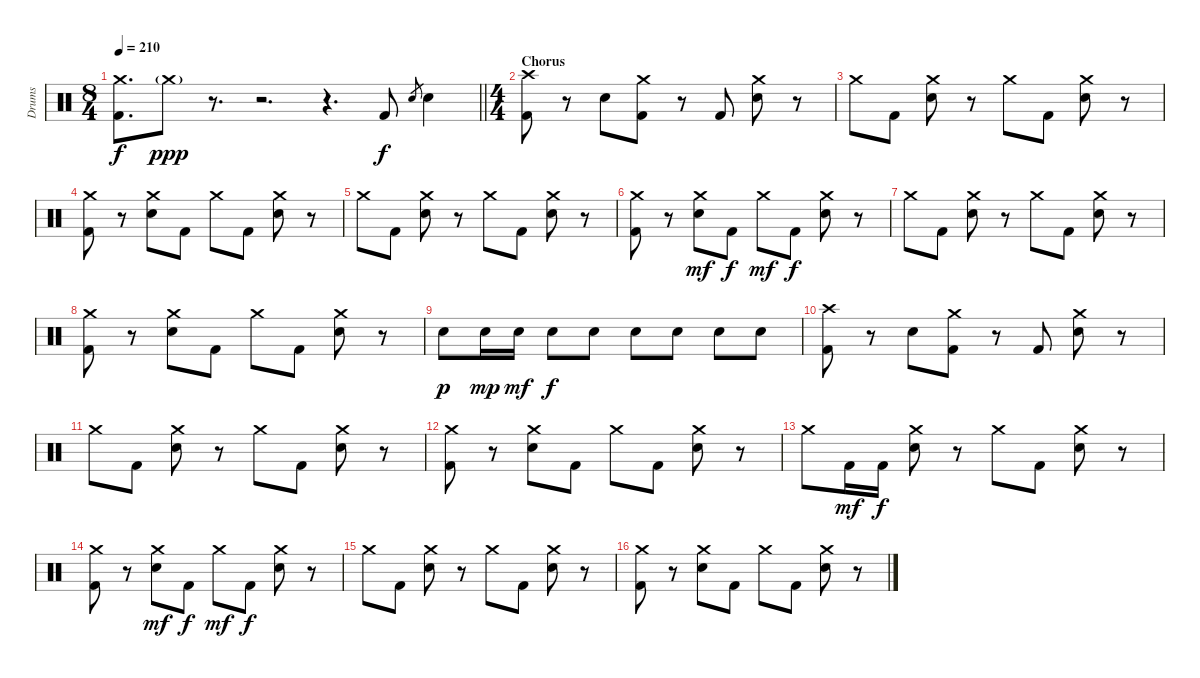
\track ("Drums" "Drums") {instrument percussion}
\staff {score}
\articulation defaults
\ts (8 4)
\tempo 210
\clef neutral
\barLineRight lightlight
\ks c
("Crash medium (hit)" "Kick (hit) 2").8{d dy f} "Crash medium (hit)"{g}.8{dy ppp} r.8{d} r.2{d} r.4{d} "Kick (hit) 2".8{dy f} "Electric Snare (hit)".8{gr} "Electric Snare (hit)".4 |
\ts (4 4)
\section ("" "Chorus")
("Crash high (hit)" "Kick (hit) 2").8 r.8 "Electric Snare (hit)".8 ("Crash medium (hit)" "Kick (hit) 2").8 r.8 "Kick (hit) 2".8 ("Crash medium (hit)" "Electric Snare (hit)").8 r.8 |
"Crash medium (hit)".8 "Kick (hit) 2".8 ("Crash medium (hit)" "Electric Snare (hit)").8 r.8 "Crash medium (hit)".8 "Kick (hit) 2".8 ("Crash medium (hit)" "Electric Snare (hit)").8 r.8 |
("Crash medium (hit)" "Kick (hit) 2").8 r.8 ("Crash medium (hit)" "Electric Snare (hit)").8 "Kick (hit) 2".8 "Crash medium (hit)".8 "Kick (hit) 2".8 ("Crash medium (hit)" "Electric Snare (hit)").8 r.8 |
"Crash medium (hit)".8 "Kick (hit) 2".8 ("Crash medium (hit)" "Electric Snare (hit)").8 r.8 "Crash medium (hit)".8 "Kick (hit) 2".8 ("Crash medium (hit)" "Electric Snare (hit)").8 r.8 |
("Crash medium (hit)" "Kick (hit) 2").8 r.8 ("Crash medium (hit)" "Electric Snare (hit)").8{dy mf} "Kick (hit) 2".8{dy f} "Crash medium (hit)".8{dy mf} "Kick (hit) 2".8{dy f} ("Crash medium (hit)" "Electric Snare (hit)").8 r.8 |
"Crash medium (hit)".8 "Kick (hit) 2".8 ("Crash medium (hit)" "Electric Snare (hit)").8 r.8 "Crash medium (hit)".8 "Kick (hit) 2".8 ("Crash medium (hit)" "Electric Snare (hit)").8 r.8 |
("Crash medium (hit)" "Kick (hit) 2").8 r.8 ("Crash medium (hit)" "Electric Snare (hit)").8 "Kick (hit) 2".8 "Crash medium (hit)".8 "Kick (hit) 2".8 ("Crash medium (hit)" "Electric Snare (hit)").8 r.8 |
"Electric Snare (hit)".8{dy p} "Electric Snare (hit)".16{dy mp} "Electric Snare (hit)".16{dy mf} "Electric Snare (hit)".8{dy f} "Electric Snare (hit)".8 "Electric Snare (hit)".8 "Electric Snare (hit)".8 "Electric Snare (hit)".8 "Electric Snare (hit)".8 |
("Crash high (hit)" "Kick (hit) 2").8 r.8 "Electric Snare (hit)".8 ("Crash medium (hit)" "Kick (hit) 2").8 r.8 "Kick (hit) 2".8 ("Crash medium (hit)" "Electric Snare (hit)").8 r.8 |
"Crash medium (hit)".8 "Kick (hit) 2".8 ("Crash medium (hit)" "Electric Snare (hit)").8 r.8 "Crash medium (hit)".8 "Kick (hit) 2".8 ("Crash medium (hit)" "Electric Snare (hit)").8 r.8 |
("Crash medium (hit)" "Kick (hit) 2").8 r.8 ("Crash medium (hit)" "Electric Snare (hit)").8 "Kick (hit) 2".8 "Crash medium (hit)".8 "Kick (hit) 2".8 ("Crash medium (hit)" "Electric Snare (hit)").8 r.8 |
"Crash medium (hit)".8 "Kick (hit) 2".16{dy mf} "Kick (hit) 2".16{dy f} ("Crash medium (hit)" "Electric Snare (hit)").8 r.8 "Crash medium (hit)".8 "Kick (hit) 2".8 ("Crash medium (hit)" "Electric Snare (hit)").8 r.8 |
("Crash medium (hit)" "Kick (hit) 2").8 r.8 ("Crash medium (hit)" "Electric Snare (hit)").8{dy mf} "Kick (hit) 2".8{dy f} "Crash medium (hit)".8{dy mf} "Kick (hit) 2".8{dy f} ("Crash medium (hit)" "Electric Snare (hit)").8 r.8 |
"Crash medium (hit)".8 "Kick (hit) 2".8 ("Crash medium (hit)" "Electric Snare (hit)").8 r.8 "Crash medium (hit)".8 "Kick (hit) 2".8 ("Crash medium (hit)" "Electric Snare (hit)").8 r.8 |
("Crash medium (hit)" "Kick (hit) 2").8 r.8 ("Crash medium (hit)" "Electric Snare (hit)").8 "Kick (hit) 2".8 "Crash medium (hit)".8 "Kick (hit) 2".8 ("Crash medium (hit)" "Electric Snare (hit)").8 r.8
